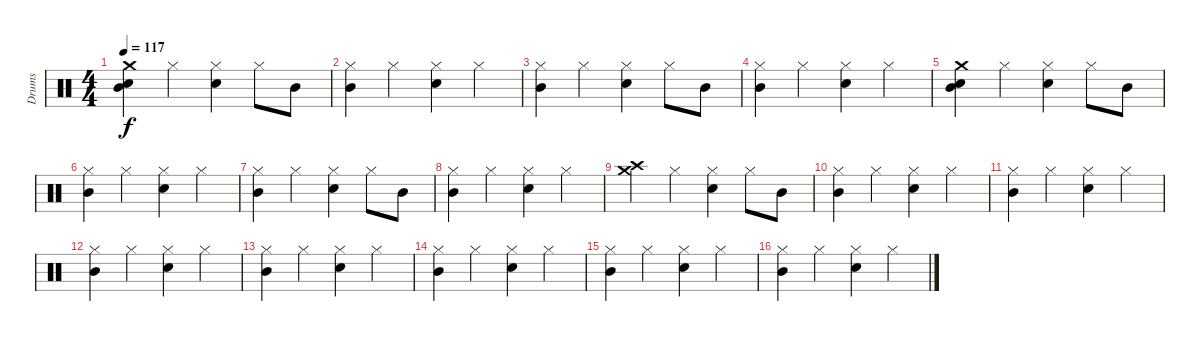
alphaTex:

\track ("Drums" "Drums") {instrument percussion}
\staff {score}
\articulation defaults
\ts (4 4)
\tempo 117
\clef neutral
\ks c
("Electric Snare (hit)" "Crash medium (hit)" "Mid Tom (hit)").4{dy f} "Hi-Hat (closed)".4 ("Hi-Hat (closed)" "Electric Snare (hit)").4 "Hi-Hat (closed)".8 "Mid Tom (hit)".8 |
("Hi-Hat (closed)" "Mid Tom (hit)").4 "Hi-Hat (closed)".4 ("Hi-Hat (closed)" "Electric Snare (hit)").4 "Hi-Hat (closed)".4 |
("Hi-Hat (closed)" "Mid Tom (hit)").4 "Hi-Hat (closed)".4 ("Hi-Hat (closed)" "Electric Snare (hit)").4 "Hi-Hat (closed)".8 "Mid Tom (hit)".8 |
("Hi-Hat (closed)" "Mid Tom (hit)").4 "Hi-Hat (closed)".4 ("Hi-Hat (closed)" "Electric Snare (hit)").4 "Hi-Hat (closed)".4 |
("Electric Snare (hit)" "Crash medium (hit)" "Mid Tom (hit)").4 "Hi-Hat (closed)".4 ("Hi-Hat (closed)" "Electric Snare (hit)").4 "Hi-Hat (closed)".8 "Mid Tom (hit)".8 |
("Hi-Hat (closed)" "Mid Tom (hit)").4 "Hi-Hat (closed)".4 ("Hi-Hat (closed)" "Electric Snare (hit)").4 "Hi-Hat (closed)".4 |
("Hi-Hat (closed)" "Mid Tom (hit)").4 "Hi-Hat (closed)".4 ("Hi-Hat (closed)" "Electric Snare (hit)").4 "Hi-Hat (closed)".8 "Mid Tom (hit)".8 |
("Hi-Hat (closed)" "Mid Tom (hit)").4 "Hi-Hat (closed)".4 ("Hi-Hat (closed)" "Electric Snare (hit)").4 "Hi-Hat (closed)".4 |
("Crash high (hit)" "Crash medium (hit)").4 "Hi-Hat (closed)".4 ("Hi-Hat (closed)" "Electric Snare (hit)").4 "Hi-Hat (closed)".8 "Mid Tom (hit)".8 |
("Hi-Hat (closed)" "Mid Tom (hit)").4 "Hi-Hat (closed)".4 ("Hi-Hat (closed)" "Electric Snare (hit)").4 "Hi-Hat (closed)".4 |
("Hi-Hat (closed)" "Mid Tom (hit)").4 "Hi-Hat (closed)".4 ("Hi-Hat (closed)" "Electric Snare (hit)").4 "Hi-Hat (closed)".4 |
("Hi-Hat (closed)" "Mid Tom (hit)").4 "Hi-Hat (closed)".4 ("Hi-Hat (closed)" "Electric Snare (hit)").4 "Hi-Hat (closed)".4 |
("Hi-Hat (closed)" "Mid Tom (hit)").4 "Hi-Hat (closed)".4 ("Hi-Hat (closed)" "Electric Snare (hit)").4 "Hi-Hat (closed)".4 |
("Hi-Hat (closed)" "Mid Tom (hit)").4 "Hi-Hat (closed)".4 ("Hi-Hat (closed)" "Electric Snare (hit)").4 "Hi-Hat (closed)".4 |
("Hi-Hat (closed)" "Mid Tom (hit)").4 "Hi-Hat (closed)".4 ("Hi-Hat (closed)" "Electric Snare (hit)").4 "Hi-Hat (closed)".4 |
("Hi-Hat (closed)" "Mid Tom (hit)").4 "Hi-Hat (closed)".4 ("Hi-Hat (closed)" "Electric Snare (hit)").4 "Hi-Hat (closed)".4
